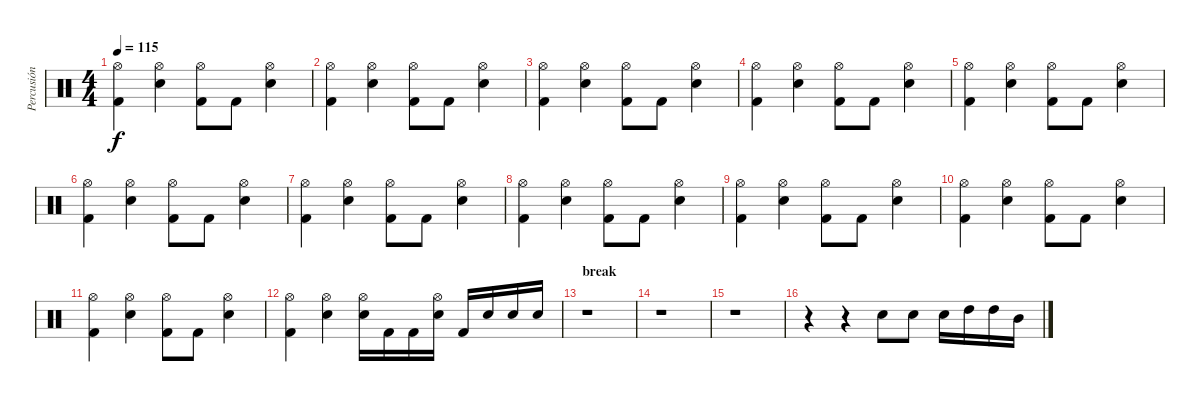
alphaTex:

\track ("Percusión" "Percusión") {instrument percussion}
\staff {score}
\articulation defaults
\ts (4 4)
\tempo 115
\clef neutral
\ks c
("Hi-Hat (open)" "Kick (hit) 2").4{dy f} ("Hi-Hat (open)" "Electric Snare (hit)").4 ("Hi-Hat (open)" "Kick (hit) 2").8 "Kick (hit) 2".8 ("Hi-Hat (open)" "Electric Snare (hit)").4 |
("Hi-Hat (open)" "Kick (hit) 2").4 ("Hi-Hat (open)" "Electric Snare (hit)").4 ("Hi-Hat (open)" "Kick (hit) 2").8 "Kick (hit) 2".8 ("Hi-Hat (open)" "Electric Snare (hit)").4 |
("Hi-Hat (open)" "Kick (hit) 2").4 ("Hi-Hat (open)" "Electric Snare (hit)").4 ("Hi-Hat (open)" "Kick (hit) 2").8 "Kick (hit) 2".8 ("Hi-Hat (open)" "Electric Snare (hit)").4 |
("Hi-Hat (open)" "Kick (hit) 2").4 ("Hi-Hat (open)" "Electric Snare (hit)").4 ("Hi-Hat (open)" "Kick (hit) 2").8 "Kick (hit) 2".8 ("Hi-Hat (open)" "Electric Snare (hit)").4 |
("Hi-Hat (open)" "Kick (hit) 2").4 ("Hi-Hat (open)" "Electric Snare (hit)").4 ("Hi-Hat (open)" "Kick (hit) 2").8 "Kick (hit) 2".8 ("Hi-Hat (open)" "Electric Snare (hit)").4 |
("Hi-Hat (open)" "Kick (hit) 2").4 ("Hi-Hat (open)" "Electric Snare (hit)").4 ("Hi-Hat (open)" "Kick (hit) 2").8 "Kick (hit) 2".8 ("Hi-Hat (open)" "Electric Snare (hit)").4 |
("Hi-Hat (open)" "Kick (hit) 2").4 ("Hi-Hat (open)" "Electric Snare (hit)").4 ("Hi-Hat (open)" "Kick (hit) 2").8 "Kick (hit) 2".8 ("Hi-Hat (open)" "Electric Snare (hit)").4 |
("Hi-Hat (open)" "Kick (hit) 2").4 ("Hi-Hat (open)" "Electric Snare (hit)").4 ("Hi-Hat (open)" "Kick (hit) 2").8 "Kick (hit) 2".8 ("Hi-Hat (open)" "Electric Snare (hit)").4 |
("Hi-Hat (open)" "Kick (hit) 2").4 ("Hi-Hat (open)" "Electric Snare (hit)").4 ("Hi-Hat (open)" "Kick (hit) 2").8 "Kick (hit) 2".8 ("Hi-Hat (open)" "Electric Snare (hit)").4 |
("Hi-Hat (open)" "Kick (hit) 2").4 ("Hi-Hat (open)" "Electric Snare (hit)").4 ("Hi-Hat (open)" "Kick (hit) 2").8 "Kick (hit) 2".8 ("Hi-Hat (open)" "Electric Snare (hit)").4 |
("Hi-Hat (open)" "Kick (hit) 2").4 ("Hi-Hat (open)" "Electric Snare (hit)").4 ("Hi-Hat (open)" "Kick (hit) 2").8 "Kick (hit) 2".8 ("Hi-Hat (open)" "Electric Snare (hit)").4 |
("Hi-Hat (open)" "Kick (hit) 2").4 ("Hi-Hat (open)" "Electric Snare (hit)").4 ("Hi-Hat (open)" "Electric Snare (hit)").16 "Kick (hit) 2".16 "Kick (hit) 2".16 ("Hi-Hat (open)" "Electric Snare (hit)").16 "Kick (hit) 2".16 "Electric Snare (hit)".16 "Electric Snare (hit)".16 "Electric Snare (hit)".16 |
\section ("" "break")
r.1 |
r.1 |
r.1 |
r.4 r.4 "Electric Snare (hit)".8 "Electric Snare (hit)".8 "Electric Snare (hit)".16 "High Tom (hit)".16 "High Tom (hit)".16 "Mid Tom (hit)".16
